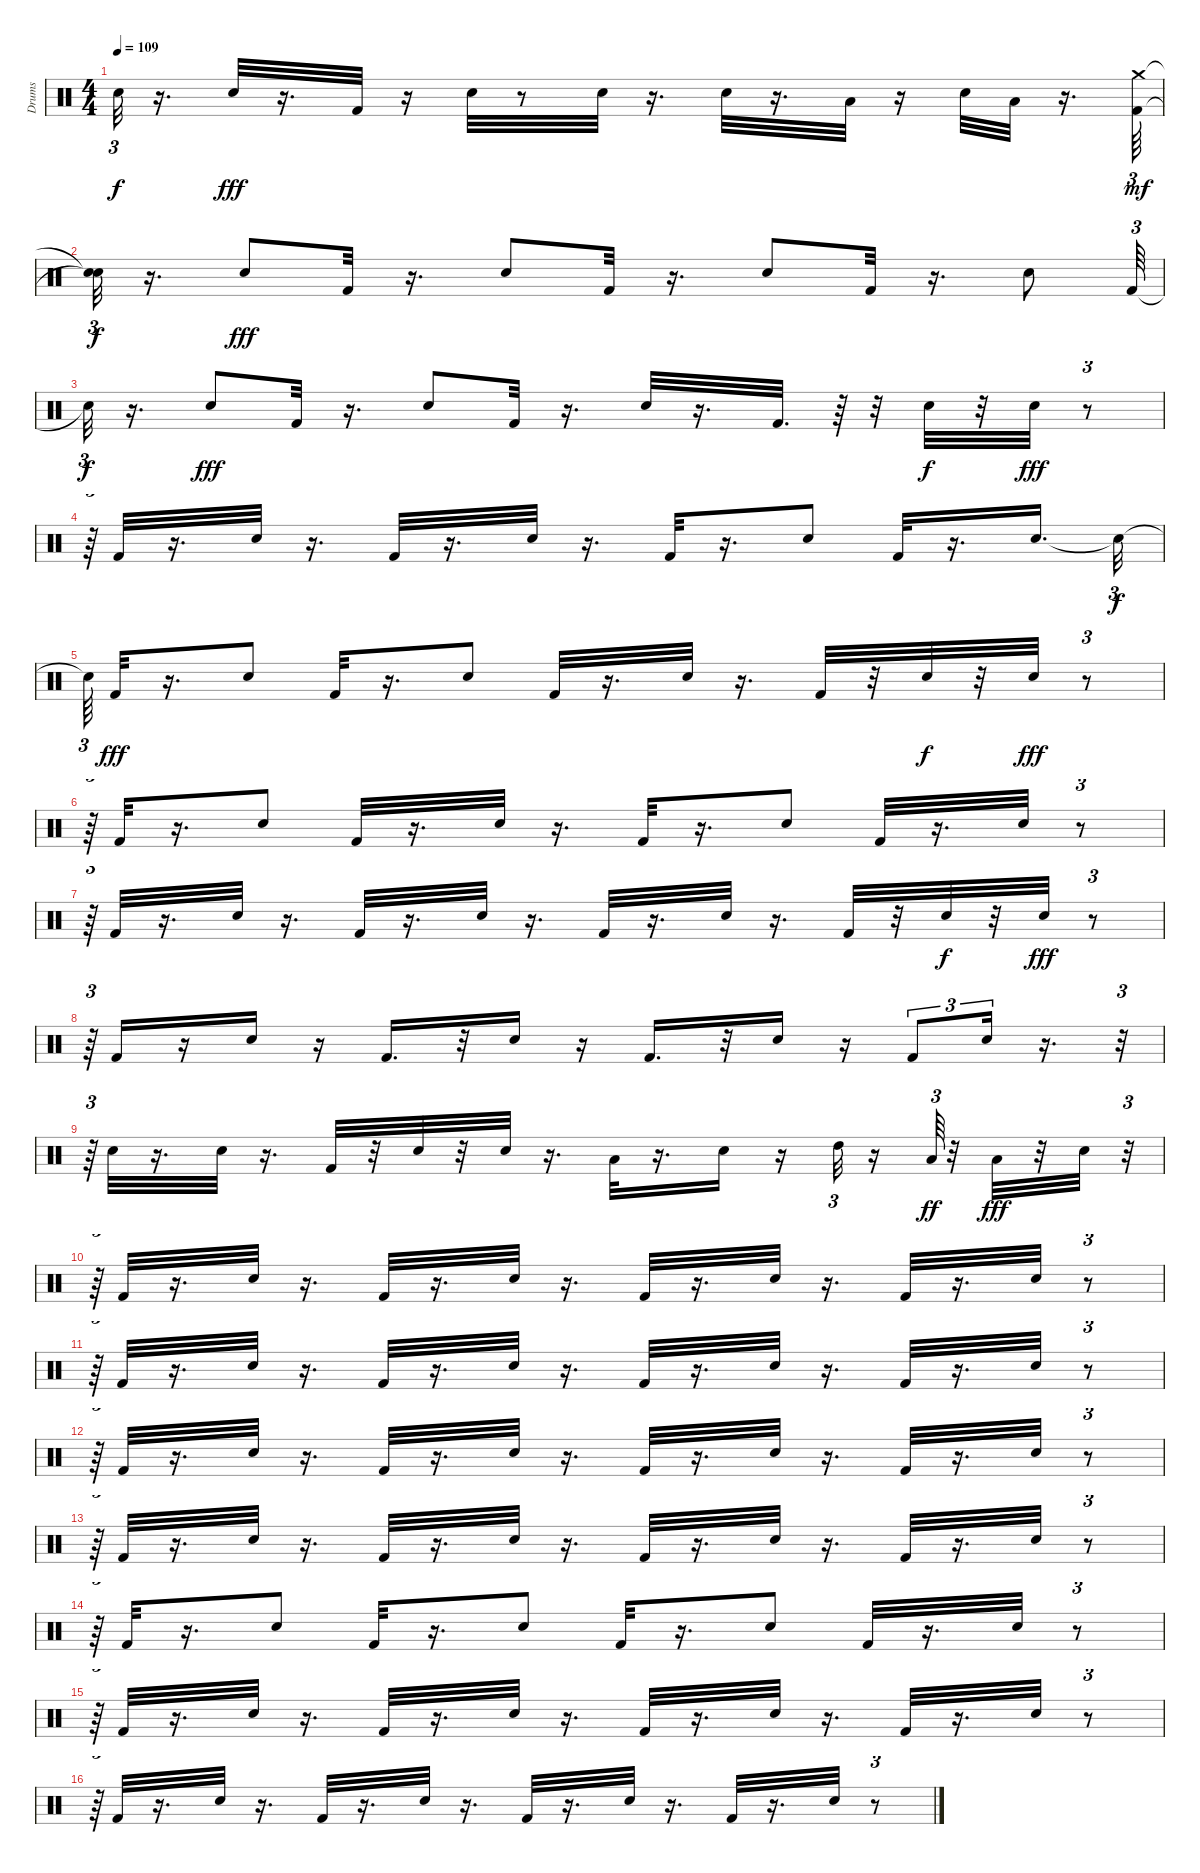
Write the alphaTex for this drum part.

\track ("Drums" "Drums") {instrument percussion}
\staff {score}
\articulation defaults
\ts (4 4)
\tempo 109
\clef neutral
\ks c "Snare (hit)"{t}.32{tu (3 2) dy f}
r.16{d} "Snare (hit) 2".32{dy fff} r.16{d} "Kick (hit) 2".32 r.16 "Snare (hit) 2".32 r.8 "Snare (hit) 2".32 r.16{d} "Snare (hit) 2".32 r.16{d} "Low Floor Tom (hit)".32 r.16 "Snare (hit) 2".32 "Low Tom (hit)".32 r.16{d} ("Kick (hit) 2" "Crash medium (hit)").64{tu (3 2) dy mf} |
("Snare (hit)"{t} "Snare (hit)"{t}).32{tu (3 2) dy f} r.16{d} "Snare (hit) 2".8{dy fff} "Kick (hit) 2".32 r.16{d} "Snare (hit) 2".8 "Kick (hit) 2".32 r.16{d} "Snare (hit) 2".8 "Kick (hit) 2".32 r.16{d} "Snare (hit) 2".8 "Kick (hit) 2".64{tu (3 2)} |
"Snare (hit)"{t}.32{tu (3 2) dy f} r.16{d} "Snare (hit) 2".8{dy fff} "Kick (hit) 2".32 r.16{d} "Snare (hit) 2".8 "Kick (hit) 2".32 r.16{d} "Snare (hit) 2".32 r.16{d} "Kick (hit) 2".32{d} r.64 r.32 "Snare (hit) 2".32{dy f} r.32 "Snare (hit) 2".32{dy fff} r.8{tu (3 2)} |
r.64{tu (3 2)} "Kick (hit) 2".32 r.16{d} "Snare (hit) 2".32 r.16{d} "Kick (hit) 2".32 r.16{d} "Snare (hit) 2".32 r.16{d} "Kick (hit) 2".32 r.16{d} "Snare (hit) 2".8 "Kick (hit) 2".32 r.16{d} "Snare (hit) 2".16{d} "Snare (hit)"{t}.32{tu (3 2) dy f} |
"Snare (hit)"{t}.64{tu (3 2)} "Kick (hit) 2".32{dy fff} r.16{d} "Snare (hit) 2".8 "Kick (hit) 2".32 r.16{d} "Snare (hit) 2".8 "Kick (hit) 2".32 r.16{d} "Snare (hit) 2".32 r.16{d} "Kick (hit) 2".32 r.32 "Snare (hit) 2".32{dy f} r.32 "Snare (hit) 2".32{dy fff} r.8{tu (3 2)} |
r.64{tu (3 2)} "Kick (hit) 2".32 r.16{d} "Snare (hit) 2".8 "Kick (hit) 2".32 r.16{d} "Snare (hit) 2".32 r.16{d} "Kick (hit) 2".32 r.16{d} "Snare (hit) 2".8 "Kick (hit) 2".32 r.16{d} "Snare (hit) 2".32 r.8{tu (3 2)} |
r.64{tu (3 2)} "Kick (hit) 2".32 r.16{d} "Snare (hit) 2".32 r.16{d} "Kick (hit) 2".32 r.16{d} "Snare (hit) 2".32 r.16{d} "Kick (hit) 2".32 r.16{d} "Snare (hit) 2".32 r.16{d} "Kick (hit) 2".32 r.32 "Snare (hit) 2".32{dy f} r.32 "Snare (hit) 2".32{dy fff} r.8{tu (3 2)} |
r.64{tu (3 2)} "Kick (hit) 2".16 r.16 "Snare (hit) 2".16 r.16 "Kick (hit) 2".16{d} r.32 "Snare (hit) 2".16 r.16 "Kick (hit) 2".16{d} r.32 "Snare (hit) 2".16 r.16 "Kick (hit) 2".8{tu (3 2)} "Snare (hit) 2".16{tu (3 2)} r.16{d} r.32{tu (3 2)} |
r.64{tu (3 2)} "Snare (hit) 2".32 r.16{d} "Snare (hit) 2".32 r.16{d} "Kick (hit) 2".32 r.32 "Snare (hit) 2".32 r.32 "Snare (hit) 2".32 r.16{d} "Low Floor Tom (hit)".32 r.16{d} "Snare (hit) 2".16 r.16 "High Tom (hit)".32{tu (3 2)} r.16 "Low Tom (hit)".64{tu (3 2) dy ff} r.32 "Low Floor Tom (hit)".32{dy fff} r.32 "Snare (hit) 2".32 r.32{tu (3 2)} |
r.64{tu (3 2)} "Kick (hit) 2".32 r.16{d} "Snare (hit) 2".32 r.16{d} "Kick (hit) 2".32 r.16{d} "Snare (hit) 2".32 r.16{d} "Kick (hit) 2".32 r.16{d} "Snare (hit) 2".32 r.16{d} "Kick (hit) 2".32 r.16{d} "Snare (hit) 2".32 r.8{tu (3 2)} |
r.64{tu (3 2)} "Kick (hit) 2".32 r.16{d} "Snare (hit) 2".32 r.16{d} "Kick (hit) 2".32 r.16{d} "Snare (hit) 2".32 r.16{d} "Kick (hit) 2".32 r.16{d} "Snare (hit) 2".32 r.16{d} "Kick (hit) 2".32 r.16{d} "Snare (hit) 2".32 r.8{tu (3 2)} |
r.64{tu (3 2)} "Kick (hit) 2".32 r.16{d} "Snare (hit) 2".32 r.16{d} "Kick (hit) 2".32 r.16{d} "Snare (hit) 2".32 r.16{d} "Kick (hit) 2".32 r.16{d} "Snare (hit) 2".32 r.16{d} "Kick (hit) 2".32 r.16{d} "Snare (hit) 2".32 r.8{tu (3 2)} |
r.64{tu (3 2)} "Kick (hit) 2".32 r.16{d} "Snare (hit) 2".32 r.16{d} "Kick (hit) 2".32 r.16{d} "Snare (hit) 2".32 r.16{d} "Kick (hit) 2".32 r.16{d} "Snare (hit) 2".32 r.16{d} "Kick (hit) 2".32 r.16{d} "Snare (hit) 2".32 r.8{tu (3 2)} |
r.64{tu (3 2)} "Kick (hit) 2".32 r.16{d} "Snare (hit) 2".8 "Kick (hit) 2".32 r.16{d} "Snare (hit) 2".8 "Kick (hit) 2".32 r.16{d} "Snare (hit) 2".8 "Kick (hit) 2".32 r.16{d} "Snare (hit) 2".32 r.8{tu (3 2)} |
r.64{tu (3 2)} "Kick (hit) 2".32 r.16{d} "Snare (hit) 2".32 r.16{d} "Kick (hit) 2".32 r.16{d} "Snare (hit) 2".32 r.16{d} "Kick (hit) 2".32 r.16{d} "Snare (hit) 2".32 r.16{d} "Kick (hit) 2".32 r.16{d} "Snare (hit) 2".32 r.8{tu (3 2)} |
r.64{tu (3 2)} "Kick (hit) 2".32 r.16{d} "Snare (hit) 2".32 r.16{d} "Kick (hit) 2".32 r.16{d} "Snare (hit) 2".32 r.16{d} "Kick (hit) 2".32 r.16{d} "Snare (hit) 2".32 r.16{d} "Kick (hit) 2".32 r.16{d} "Snare (hit) 2".32 r.8{tu (3 2)}
